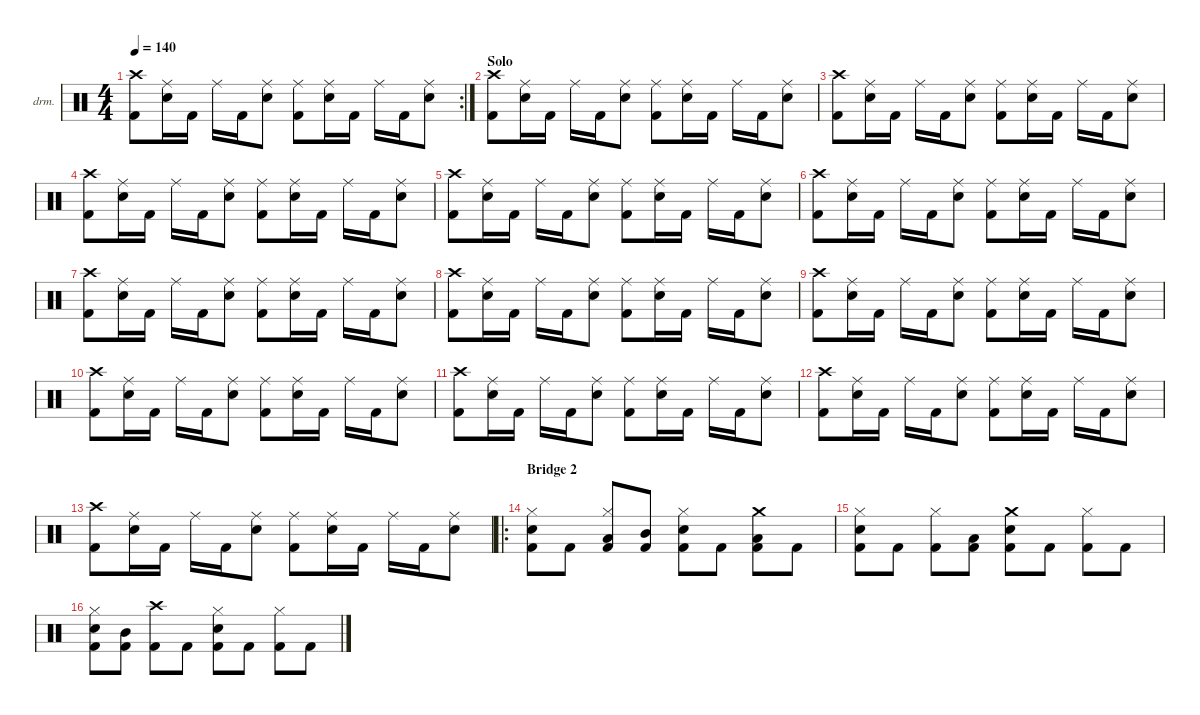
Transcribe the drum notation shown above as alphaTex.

\defaultSystemsLayout 4
\hideDynamics
\bracketExtendMode nobrackets
\firstSystemTrackNameOrientation horizontal
\otherSystemsTrackNameOrientation horizontal
\track ("Drumkit" "drm.") {instrument percussion}
\staff {score}
\articulation defaults
\rc 2
\ts (4 4)
\tempo 140
\clef neutral
\ks c
("Crash high (hit)" "Kick (hit) 2").8{dy f} ("Ride (middle)" "Snare (hit) 2").16 "Kick (hit) 2".16 "Ride (middle)".16 "Kick (hit) 2".16 ("Ride (middle)" "Snare (hit) 2").8 ("Ride (middle)" "Kick (hit) 2").8 ("Ride (middle)" "Snare (hit) 2").16 "Kick (hit) 2".16 "Ride (middle)".16 "Kick (hit) 2".16 ("Ride (middle)" "Snare (hit) 2").8 |
\section ("" "Solo")
("Crash high (hit)" "Kick (hit) 2").8 ("Ride (middle)" "Snare (hit) 2").16 "Kick (hit) 2".16 "Ride (middle)".16 "Kick (hit) 2".16 ("Ride (middle)" "Snare (hit) 2").8 ("Ride (middle)" "Kick (hit) 2").8 ("Ride (middle)" "Snare (hit) 2").16 "Kick (hit) 2".16 "Ride (middle)".16 "Kick (hit) 2".16 ("Ride (middle)" "Snare (hit) 2").8 |
("Crash high (hit)" "Kick (hit) 2").8 ("Ride (middle)" "Snare (hit) 2").16 "Kick (hit) 2".16 "Ride (middle)".16 "Kick (hit) 2".16 ("Ride (middle)" "Snare (hit) 2").8 ("Ride (middle)" "Kick (hit) 2").8 ("Ride (middle)" "Snare (hit) 2").16 "Kick (hit) 2".16 "Ride (middle)".16 "Kick (hit) 2".16 ("Ride (middle)" "Snare (hit) 2").8 |
("Crash high (hit)" "Kick (hit) 2").8 ("Ride (middle)" "Snare (hit) 2").16 "Kick (hit) 2".16 "Ride (middle)".16 "Kick (hit) 2".16 ("Ride (middle)" "Snare (hit) 2").8 ("Ride (middle)" "Kick (hit) 2").8 ("Ride (middle)" "Snare (hit) 2").16 "Kick (hit) 2".16 "Ride (middle)".16 "Kick (hit) 2".16 ("Ride (middle)" "Snare (hit) 2").8 |
("Crash high (hit)" "Kick (hit) 2").8 ("Ride (middle)" "Snare (hit) 2").16 "Kick (hit) 2".16 "Ride (middle)".16 "Kick (hit) 2".16 ("Ride (middle)" "Snare (hit) 2").8 ("Ride (middle)" "Kick (hit) 2").8 ("Ride (middle)" "Snare (hit) 2").16 "Kick (hit) 2".16 "Ride (middle)".16 "Kick (hit) 2".16 ("Ride (middle)" "Snare (hit) 2").8 |
("Crash high (hit)" "Kick (hit) 2").8 ("Ride (middle)" "Snare (hit) 2").16 "Kick (hit) 2".16 "Ride (middle)".16 "Kick (hit) 2".16 ("Ride (middle)" "Snare (hit) 2").8 ("Ride (middle)" "Kick (hit) 2").8 ("Ride (middle)" "Snare (hit) 2").16 "Kick (hit) 2".16 "Ride (middle)".16 "Kick (hit) 2".16 ("Ride (middle)" "Snare (hit) 2").8 |
("Crash high (hit)" "Kick (hit) 2").8 ("Ride (middle)" "Snare (hit) 2").16 "Kick (hit) 2".16 "Ride (middle)".16 "Kick (hit) 2".16 ("Ride (middle)" "Snare (hit) 2").8 ("Ride (middle)" "Kick (hit) 2").8 ("Ride (middle)" "Snare (hit) 2").16 "Kick (hit) 2".16 "Ride (middle)".16 "Kick (hit) 2".16 ("Ride (middle)" "Snare (hit) 2").8 |
("Crash high (hit)" "Kick (hit) 2").8 ("Ride (middle)" "Snare (hit) 2").16 "Kick (hit) 2".16 "Ride (middle)".16 "Kick (hit) 2".16 ("Ride (middle)" "Snare (hit) 2").8 ("Ride (middle)" "Kick (hit) 2").8 ("Ride (middle)" "Snare (hit) 2").16 "Kick (hit) 2".16 "Ride (middle)".16 "Kick (hit) 2".16 ("Ride (middle)" "Snare (hit) 2").8 |
("Crash high (hit)" "Kick (hit) 2").8 ("Ride (middle)" "Snare (hit) 2").16 "Kick (hit) 2".16 "Ride (middle)".16 "Kick (hit) 2".16 ("Ride (middle)" "Snare (hit) 2").8 ("Ride (middle)" "Kick (hit) 2").8 ("Ride (middle)" "Snare (hit) 2").16 "Kick (hit) 2".16 "Ride (middle)".16 "Kick (hit) 2".16 ("Ride (middle)" "Snare (hit) 2").8 |
("Crash high (hit)" "Kick (hit) 2").8 ("Ride (middle)" "Snare (hit) 2").16 "Kick (hit) 2".16 "Ride (middle)".16 "Kick (hit) 2".16 ("Ride (middle)" "Snare (hit) 2").8 ("Ride (middle)" "Kick (hit) 2").8 ("Ride (middle)" "Snare (hit) 2").16 "Kick (hit) 2".16 "Ride (middle)".16 "Kick (hit) 2".16 ("Ride (middle)" "Snare (hit) 2").8 |
("Crash high (hit)" "Kick (hit) 2").8 ("Ride (middle)" "Snare (hit) 2").16 "Kick (hit) 2".16 "Ride (middle)".16 "Kick (hit) 2".16 ("Ride (middle)" "Snare (hit) 2").8 ("Ride (middle)" "Kick (hit) 2").8 ("Ride (middle)" "Snare (hit) 2").16 "Kick (hit) 2".16 "Ride (middle)".16 "Kick (hit) 2".16 ("Ride (middle)" "Snare (hit) 2").8 |
("Crash high (hit)" "Kick (hit) 2").8 ("Ride (middle)" "Snare (hit) 2").16 "Kick (hit) 2".16 "Ride (middle)".16 "Kick (hit) 2".16 ("Ride (middle)" "Snare (hit) 2").8 ("Ride (middle)" "Kick (hit) 2").8 ("Ride (middle)" "Snare (hit) 2").16 "Kick (hit) 2".16 "Ride (middle)".16 "Kick (hit) 2".16 ("Ride (middle)" "Snare (hit) 2").8 |
("Crash high (hit)" "Kick (hit) 2").8 ("Ride (middle)" "Snare (hit) 2").16 "Kick (hit) 2".16 "Ride (middle)".16 "Kick (hit) 2".16 ("Ride (middle)" "Snare (hit) 2").8 ("Ride (middle)" "Kick (hit) 2").8 ("Ride (middle)" "Snare (hit) 2").16 "Kick (hit) 2".16 "Ride (middle)".16 "Kick (hit) 2".16 ("Ride (middle)" "Snare (hit) 2").8 |
\ro
\section ("" "Bridge 2")
("Hi-Hat (closed)" "Kick (hit) 2" "Snare (hit) 2").8{dy mf} "Kick (hit) 2".8 ("Kick (hit) 2" "Hi-Hat (closed)" "Low Tom (hit)").8 ("Kick (hit) 2" "Mid Tom (hit)").8 ("Kick (hit) 2" "Hi-Hat (closed)" "Snare (hit) 2").8 "Kick (hit) 2".8 ("Kick (hit) 2" "Low Tom (hit)" "Crash medium (hit)").8 "Kick (hit) 2".8 |
("Hi-Hat (closed)" "Kick (hit) 2" "Snare (hit) 2").8 "Kick (hit) 2".8 ("Kick (hit) 2" "Hi-Hat (closed)").8 ("Kick (hit) 2" "Low Tom (hit)").8 ("Kick (hit) 2" "Snare (hit) 2" "Crash medium (hit)").8 "Kick (hit) 2".8 ("Kick (hit) 2" "Hi-Hat (closed)").8 "Kick (hit) 2".8 |
("Hi-Hat (closed)" "Kick (hit) 2" "Snare (hit) 2").8 ("Kick (hit) 2" "Mid Tom (hit)").8 ("Kick (hit) 2" "Crash high (hit)").8 "Kick (hit) 2".8 ("Kick (hit) 2" "Hi-Hat (closed)" "Snare (hit) 2").8 "Kick (hit) 2".8 ("Kick (hit) 2" "Hi-Hat (closed)").8 "Kick (hit) 2".8
